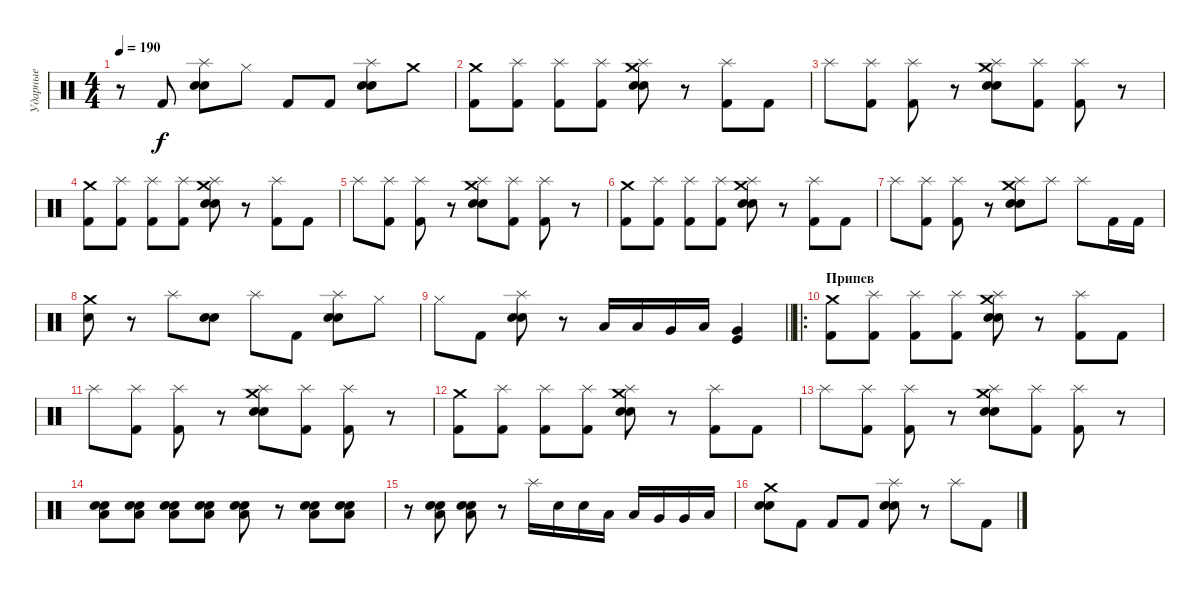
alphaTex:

\track ("Ударные" "Ударные") {instrument percussion}
\staff {score}
\articulation defaults
\ts (4 4)
\tempo 190
\clef neutral
\ks c
r.8{dy f} "Kick (hit) 2".8 ("Splash (hit)" "Electric Snare (hit)" "Snare (hit) 2").8 "Hi-Hat (closed)".8 "Kick (hit) 2".8 "Kick (hit) 2".8 ("Splash (hit)" "Electric Snare (hit)" "Snare (hit) 2").8 "Crash medium (hit)".8 |
("Crash medium (hit)" "Kick (hit) 2").8 ("Splash (hit)" "Kick (hit) 2").8 ("Splash (hit)" "Kick (hit) 2").8 ("Splash (hit)" "Kick (hit) 2").8 ("Crash medium (hit)" "Splash (hit)" "Electric Snare (hit)" "Snare (hit) 2").8 r.8 ("Splash (hit)" "Kick (hit) 2").8 "Kick (hit) 2".8 |
"Splash (hit)".8 ("Splash (hit)" "Kick (hit) 2").8 ("Splash (hit)" "Kick (hit) 2").8 r.8 ("Crash medium (hit)" "Splash (hit)" "Electric Snare (hit)" "Snare (hit) 2").8 ("Splash (hit)" "Kick (hit) 2").8 ("Splash (hit)" "Kick (hit) 2").8 r.8 |
("Crash medium (hit)" "Kick (hit) 2").8 ("Splash (hit)" "Kick (hit) 2").8 ("Splash (hit)" "Kick (hit) 2").8 ("Splash (hit)" "Kick (hit) 2").8 ("Crash medium (hit)" "Splash (hit)" "Electric Snare (hit)" "Snare (hit) 2").8 r.8 ("Splash (hit)" "Kick (hit) 2").8 "Kick (hit) 2".8 |
"Splash (hit)".8 ("Splash (hit)" "Kick (hit) 2").8 ("Splash (hit)" "Kick (hit) 2").8 r.8 ("Crash medium (hit)" "Splash (hit)" "Electric Snare (hit)" "Snare (hit) 2").8 ("Splash (hit)" "Kick (hit) 2").8 ("Splash (hit)" "Kick (hit) 2").8 r.8 |
("Crash medium (hit)" "Kick (hit) 2").8 ("Splash (hit)" "Kick (hit) 2").8 ("Splash (hit)" "Kick (hit) 2").8 ("Splash (hit)" "Kick (hit) 2").8 ("Crash medium (hit)" "Splash (hit)" "Electric Snare (hit)" "Snare (hit) 2").8 r.8 ("Splash (hit)" "Kick (hit) 2").8 "Kick (hit) 2".8 |
"Splash (hit)".8 ("Splash (hit)" "Kick (hit) 2").8 ("Splash (hit)" "Kick (hit) 2").8 r.8 ("Crash medium (hit)" "Splash (hit)" "Electric Snare (hit)" "Snare (hit) 2").8 "Splash (hit)".8 "Splash (hit)".8 "Kick (hit) 2".16 "Kick (hit) 2".16 |
("Crash medium (hit)" "Electric Snare (hit)").8 r.8 "Splash (hit)".8 ("Electric Snare (hit)" "Snare (hit) 2").8 "Splash (hit)".8 "Kick (hit) 2".8 ("Splash (hit)" "Electric Snare (hit)" "Snare (hit) 2").8 "Hi-Hat (closed)".8 |
\barLineRight lightlight "Hi-Hat (closed)".8 "Kick (hit) 2".8
("Splash (hit)" "Electric Snare (hit)" "Snare (hit) 2").8 r.8 "Low Tom (hit)".16 "Low Tom (hit)".16 "Very Low Tom (hit)".16 "Low Tom (hit)".16 ("Very Low Tom (hit)" "Kick (hit)").4 |
\ro
\section ("" "Припев")
("Crash medium (hit)" "Kick (hit) 2").8 ("Splash (hit)" "Kick (hit) 2").8 ("Splash (hit)" "Kick (hit) 2").8 ("Splash (hit)" "Kick (hit) 2").8 ("Crash medium (hit)" "Splash (hit)" "Electric Snare (hit)" "Snare (hit) 2").8 r.8 ("Splash (hit)" "Kick (hit) 2").8 "Kick (hit) 2".8 |
"Splash (hit)".8 ("Splash (hit)" "Kick (hit) 2").8 ("Splash (hit)" "Kick (hit) 2").8 r.8 ("Crash medium (hit)" "Splash (hit)" "Electric Snare (hit)" "Snare (hit) 2").8 ("Splash (hit)" "Kick (hit) 2").8 ("Splash (hit)" "Kick (hit) 2").8 r.8 |
("Crash medium (hit)" "Kick (hit) 2").8 ("Splash (hit)" "Kick (hit) 2").8 ("Splash (hit)" "Kick (hit) 2").8 ("Splash (hit)" "Kick (hit) 2").8 ("Crash medium (hit)" "Splash (hit)" "Electric Snare (hit)" "Snare (hit) 2").8 r.8 ("Splash (hit)" "Kick (hit) 2").8 "Kick (hit) 2".8 |
"Splash (hit)".8 ("Splash (hit)" "Kick (hit) 2").8 ("Splash (hit)" "Kick (hit) 2").8 r.8 ("Crash medium (hit)" "Splash (hit)" "Electric Snare (hit)" "Snare (hit) 2").8 ("Splash (hit)" "Kick (hit) 2").8 ("Splash (hit)" "Kick (hit) 2").8 r.8 |
("Electric Snare (hit)" "Low Tom (hit)" "Snare (hit) 2").8 ("Electric Snare (hit)" "Low Tom (hit)" "Snare (hit) 2").8 ("Electric Snare (hit)" "Low Tom (hit)" "Snare (hit) 2").8 ("Electric Snare (hit)" "Low Tom (hit)" "Snare (hit) 2").8 ("Electric Snare (hit)" "Low Tom (hit)" "Snare (hit) 2").8 r.8 ("Electric Snare (hit)" "Low Tom (hit)" "Snare (hit) 2").8 ("Electric Snare (hit)" "Low Tom (hit)" "Snare (hit) 2").8 |
r.8 ("Electric Snare (hit)" "Low Tom (hit)" "Snare (hit) 2").8 ("Electric Snare (hit)" "Low Tom (hit)" "Snare (hit) 2").8 r.8 "Splash (hit)".16 "Electric Snare (hit)".16 "Electric Snare (hit)".16 "Low Tom (hit)".16 "Low Tom (hit)".16 "Very Low Tom (hit)".16 "Very Low Tom (hit)".16 "Low Floor Tom (hit)".16 |
("Crash medium (hit)" "Electric Snare (hit)" "Snare (hit) 2").8 "Kick (hit) 2".8 "Kick (hit) 2".8 "Kick (hit) 2".8 ("Splash (hit)" "Electric Snare (hit)" "Snare (hit) 2").8 r.8 "Splash (hit)".8 "Kick (hit) 2".8
